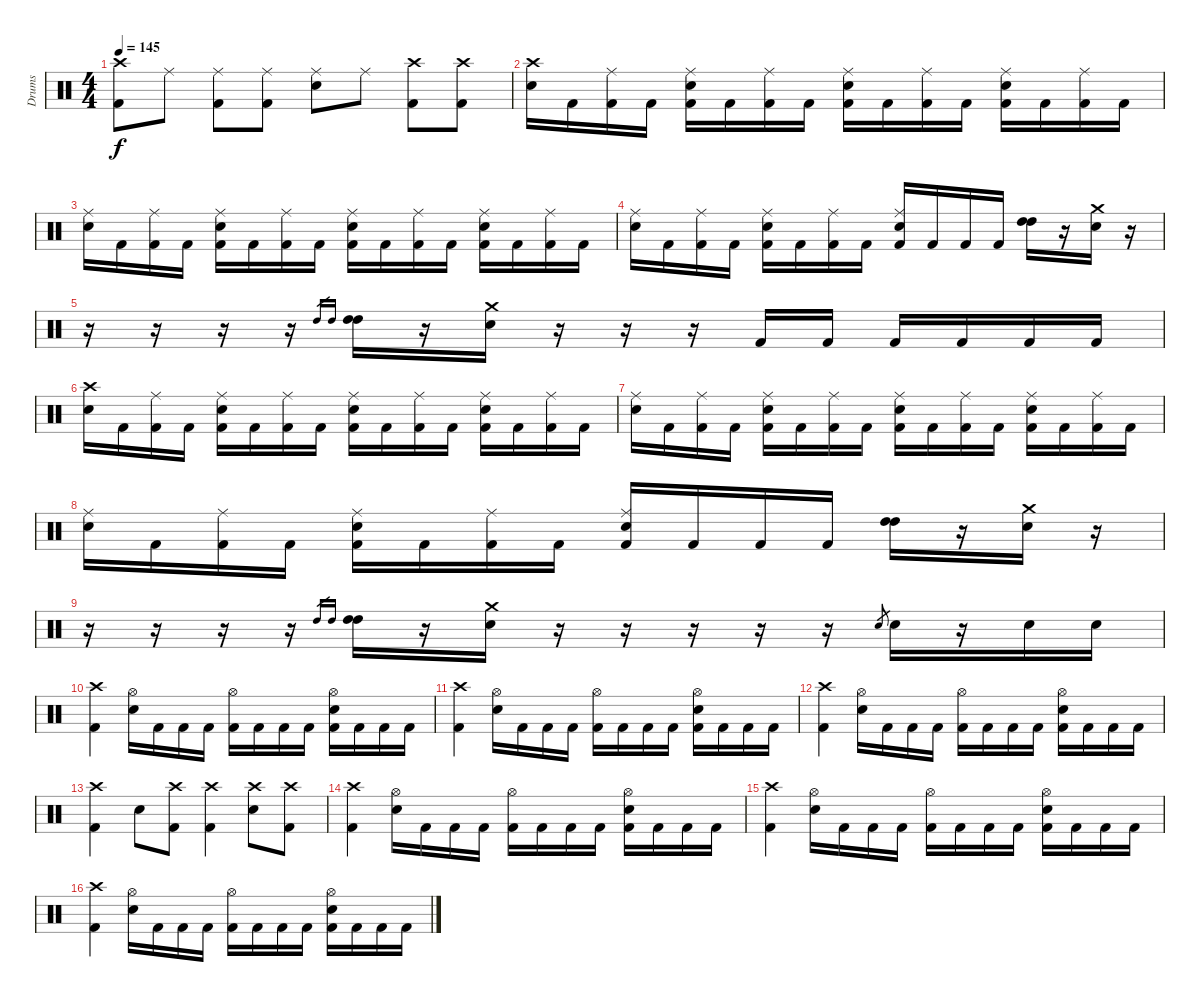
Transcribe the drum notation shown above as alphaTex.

\track ("Drums" "Drums") {instrument percussion}
\staff {score}
\articulation defaults
\ts (4 4)
\tempo 145
\clef neutral
\ks c
("Crash high (hit)" "Kick (hit) 2").8{dy f} "Ride (middle)".8 ("Ride (middle)" "Kick (hit) 2").8 ("Ride (middle)" "Kick (hit) 2").8 ("Ride (middle)" "Snare (hit) 2").8 "Ride (middle)".8 ("Crash high (hit)" "Kick (hit) 2").8 ("Crash high (hit)" "Kick (hit) 2").8 |
("Crash high (hit)" "Snare (hit) 2").16 "Kick (hit) 2".16 ("Ride (middle)" "Kick (hit) 2").16 "Kick (hit) 2".16 ("Ride (middle)" "Snare (hit) 2" "Kick (hit) 2").16 "Kick (hit) 2".16 ("Ride (middle)" "Kick (hit) 2").16 "Kick (hit) 2".16 ("Ride (middle)" "Snare (hit) 2" "Kick (hit) 2").16 "Kick (hit) 2".16 ("Ride (middle)" "Kick (hit) 2").16 "Kick (hit) 2".16 ("Ride (middle)" "Snare (hit) 2" "Kick (hit) 2").16 "Kick (hit) 2".16 ("Ride (middle)" "Kick (hit) 2").16 "Kick (hit) 2".16 |
("Ride (middle)" "Snare (hit) 2").16 "Kick (hit) 2".16 ("Ride (middle)" "Kick (hit) 2").16 "Kick (hit) 2".16 ("Ride (middle)" "Snare (hit) 2" "Kick (hit) 2").16 "Kick (hit) 2".16 ("Ride (middle)" "Kick (hit) 2").16 "Kick (hit) 2".16 ("Ride (middle)" "Snare (hit) 2" "Kick (hit) 2").16 "Kick (hit) 2".16 ("Ride (middle)" "Kick (hit) 2").16 "Kick (hit) 2".16 ("Ride (middle)" "Snare (hit) 2" "Kick (hit) 2").16 "Kick (hit) 2".16 ("Ride (middle)" "Kick (hit) 2").16 "Kick (hit) 2".16 |
("Ride (middle)" "Snare (hit) 2").16 "Kick (hit) 2".16 ("Ride (middle)" "Kick (hit) 2").16 "Kick (hit) 2".16 ("Ride (middle)" "Snare (hit) 2" "Kick (hit) 2").16 "Kick (hit) 2".16 ("Ride (middle)" "Kick (hit) 2").16 "Kick (hit) 2".16 ("Ride (middle)" "Snare (hit) 2" "Kick (hit) 2").16 "Kick (hit) 2".16 "Kick (hit) 2".16 "Kick (hit) 2".16 ("High Tom (hit)" "High Tom (hit)").16 r.16 ("Crash medium (hit)" "Snare (hit) 2").16 r.16 |
r.16 r.16 r.16 r.16 "High Tom (hit)".16{gr} "High Tom (hit)".16{gr} ("High Tom (hit)" "High Tom (hit)").16 r.16 ("Crash medium (hit)" "Snare (hit) 2").16 r.16 r.16 r.16 "Kick (hit) 2".16 "Kick (hit) 2".16 "Kick (hit) 2".16 "Kick (hit) 2".16 "Kick (hit) 2".16 "Kick (hit) 2".16 |
("Crash high (hit)" "Snare (hit) 2").16 "Kick (hit) 2".16 ("Ride (middle)" "Kick (hit) 2").16 "Kick (hit) 2".16 ("Ride (middle)" "Snare (hit) 2" "Kick (hit) 2").16 "Kick (hit) 2".16 ("Ride (middle)" "Kick (hit) 2").16 "Kick (hit) 2".16 ("Ride (middle)" "Snare (hit) 2" "Kick (hit) 2").16 "Kick (hit) 2".16 ("Ride (middle)" "Kick (hit) 2").16 "Kick (hit) 2".16 ("Ride (middle)" "Snare (hit) 2" "Kick (hit) 2").16 "Kick (hit) 2".16 ("Ride (middle)" "Kick (hit) 2").16 "Kick (hit) 2".16 |
("Ride (middle)" "Snare (hit) 2").16 "Kick (hit) 2".16 ("Ride (middle)" "Kick (hit) 2").16 "Kick (hit) 2".16 ("Ride (middle)" "Snare (hit) 2" "Kick (hit) 2").16 "Kick (hit) 2".16 ("Ride (middle)" "Kick (hit) 2").16 "Kick (hit) 2".16 ("Ride (middle)" "Snare (hit) 2" "Kick (hit) 2").16 "Kick (hit) 2".16 ("Ride (middle)" "Kick (hit) 2").16 "Kick (hit) 2".16 ("Ride (middle)" "Snare (hit) 2" "Kick (hit) 2").16 "Kick (hit) 2".16 ("Ride (middle)" "Kick (hit) 2").16 "Kick (hit) 2".16 |
("Ride (middle)" "Snare (hit) 2").16 "Kick (hit) 2".16 ("Ride (middle)" "Kick (hit) 2").16 "Kick (hit) 2".16 ("Ride (middle)" "Snare (hit) 2" "Kick (hit) 2").16 "Kick (hit) 2".16 ("Ride (middle)" "Kick (hit) 2").16 "Kick (hit) 2".16 ("Ride (middle)" "Snare (hit) 2" "Kick (hit) 2").16 "Kick (hit) 2".16 "Kick (hit) 2".16 "Kick (hit) 2".16 ("High Tom (hit)" "High Tom (hit)").16 r.16 ("Crash medium (hit)" "Snare (hit) 2").16 r.16 |
r.16 r.16 r.16 r.16 "High Tom (hit)".16{gr} "High Tom (hit)".16{gr} ("High Tom (hit)" "High Tom (hit)").16 r.16 ("Crash medium (hit)" "Snare (hit) 2").16 r.16 r.16 r.16 r.16 r.16 "Snare (hit) 2".8{gr} "Snare (hit) 2".16 r.16 "Snare (hit) 2".16 "Snare (hit) 2".16 |
("Crash high (hit)" "Kick (hit) 2").4 ("Hi-Hat (open)" "Snare (hit) 2").16 "Kick (hit) 2".16 "Kick (hit) 2".16 "Kick (hit) 2".16 ("Hi-Hat (open)" "Kick (hit) 2").16 "Kick (hit) 2".16 "Kick (hit) 2".16 "Kick (hit) 2".16 ("Hi-Hat (open)" "Snare (hit) 2" "Kick (hit) 2").16 "Kick (hit) 2".16 "Kick (hit) 2".16 "Kick (hit) 2".16 |
("Crash high (hit)" "Kick (hit) 2").4 ("Hi-Hat (open)" "Snare (hit) 2").16 "Kick (hit) 2".16 "Kick (hit) 2".16 "Kick (hit) 2".16 ("Hi-Hat (open)" "Kick (hit) 2").16 "Kick (hit) 2".16 "Kick (hit) 2".16 "Kick (hit) 2".16 ("Hi-Hat (open)" "Snare (hit) 2" "Kick (hit) 2").16 "Kick (hit) 2".16 "Kick (hit) 2".16 "Kick (hit) 2".16 |
("Crash high (hit)" "Kick (hit) 2").4 ("Hi-Hat (open)" "Snare (hit) 2").16 "Kick (hit) 2".16 "Kick (hit) 2".16 "Kick (hit) 2".16 ("Hi-Hat (open)" "Kick (hit) 2").16 "Kick (hit) 2".16 "Kick (hit) 2".16 "Kick (hit) 2".16 ("Hi-Hat (open)" "Snare (hit) 2" "Kick (hit) 2").16 "Kick (hit) 2".16 "Kick (hit) 2".16 "Kick (hit) 2".16 |
("Crash high (hit)" "Kick (hit) 2").4 "Snare (hit) 2".8 ("Crash high (hit)" "Kick (hit) 2").8 ("Crash high (hit)" "Kick (hit) 2").4 ("Crash high (hit)" "Snare (hit) 2").8 ("Crash high (hit)" "Kick (hit) 2").8 |
("Crash high (hit)" "Kick (hit) 2").4 ("Hi-Hat (open)" "Snare (hit) 2").16 "Kick (hit) 2".16 "Kick (hit) 2".16 "Kick (hit) 2".16 ("Hi-Hat (open)" "Kick (hit) 2").16 "Kick (hit) 2".16 "Kick (hit) 2".16 "Kick (hit) 2".16 ("Hi-Hat (open)" "Snare (hit) 2" "Kick (hit) 2").16 "Kick (hit) 2".16 "Kick (hit) 2".16 "Kick (hit) 2".16 |
("Crash high (hit)" "Kick (hit) 2").4 ("Hi-Hat (open)" "Snare (hit) 2").16 "Kick (hit) 2".16 "Kick (hit) 2".16 "Kick (hit) 2".16 ("Hi-Hat (open)" "Kick (hit) 2").16 "Kick (hit) 2".16 "Kick (hit) 2".16 "Kick (hit) 2".16 ("Hi-Hat (open)" "Snare (hit) 2" "Kick (hit) 2").16 "Kick (hit) 2".16 "Kick (hit) 2".16 "Kick (hit) 2".16 |
("Crash high (hit)" "Kick (hit) 2").4 ("Hi-Hat (open)" "Snare (hit) 2").16 "Kick (hit) 2".16 "Kick (hit) 2".16 "Kick (hit) 2".16 ("Hi-Hat (open)" "Kick (hit) 2").16 "Kick (hit) 2".16 "Kick (hit) 2".16 "Kick (hit) 2".16 ("Hi-Hat (open)" "Snare (hit) 2" "Kick (hit) 2").16 "Kick (hit) 2".16 "Kick (hit) 2".16 "Kick (hit) 2".16
